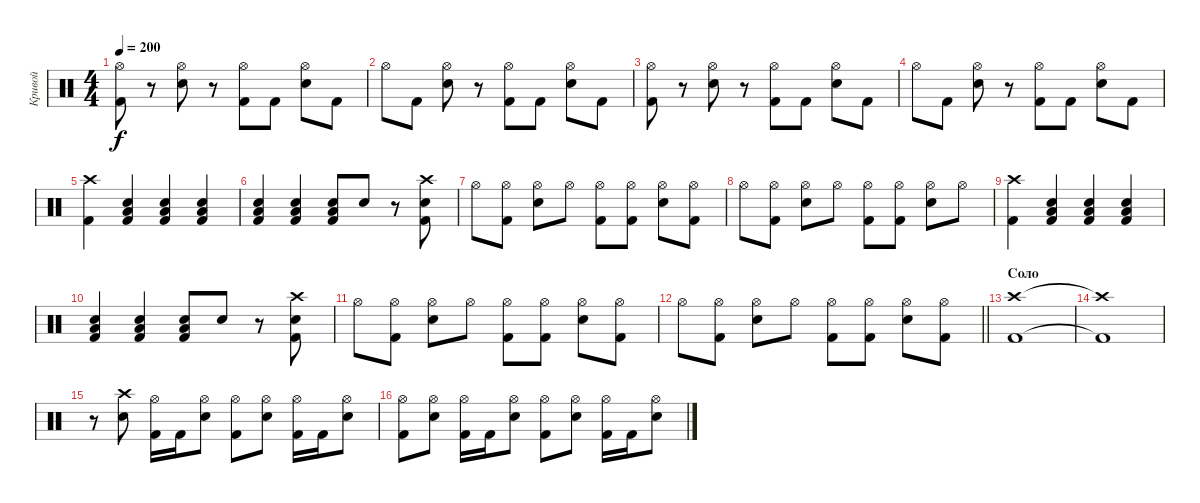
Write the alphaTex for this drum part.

\track ("Кривой" "Кривой") {instrument percussion}
\staff {score}
\articulation defaults
\ts (4 4)
\tempo 200
\clef neutral
\ks c
("Kick (hit) 2" "Hi-Hat (open)").8{dy f} r.8 ("Electric Snare (hit)" "Hi-Hat (open)").8 r.8 ("Kick (hit) 2" "Hi-Hat (open)").8 "Kick (hit) 2".8 ("Electric Snare (hit)" "Hi-Hat (open)").8 "Kick (hit) 2".8 |
"Hi-Hat (open)".8 "Kick (hit) 2".8 ("Electric Snare (hit)" "Hi-Hat (open)").8 r.8 ("Kick (hit) 2" "Hi-Hat (open)").8 "Kick (hit) 2".8 ("Electric Snare (hit)" "Hi-Hat (open)").8 "Kick (hit) 2".8 |
("Kick (hit) 2" "Hi-Hat (open)").8 r.8 ("Electric Snare (hit)" "Hi-Hat (open)").8 r.8 ("Kick (hit) 2" "Hi-Hat (open)").8 "Kick (hit) 2".8 ("Electric Snare (hit)" "Hi-Hat (open)").8 "Kick (hit) 2".8 |
"Hi-Hat (open)".8 "Kick (hit) 2".8 ("Electric Snare (hit)" "Hi-Hat (open)").8 r.8 ("Kick (hit) 2" "Hi-Hat (open)").8 "Kick (hit) 2".8 ("Electric Snare (hit)" "Hi-Hat (open)").8 "Kick (hit) 2".8 |
("Kick (hit) 2" "Crash high (hit)").4 ("Kick (hit) 2" "Electric Snare (hit)" "Low Tom (hit)").4 ("Kick (hit) 2" "Electric Snare (hit)" "Low Tom (hit)").4 ("Kick (hit) 2" "Electric Snare (hit)" "Low Tom (hit)").4 |
("Kick (hit) 2" "Electric Snare (hit)" "Low Tom (hit)").4 ("Kick (hit) 2" "Electric Snare (hit)" "Low Tom (hit)").4 ("Kick (hit) 2" "Electric Snare (hit)" "Low Tom (hit)").8 "Electric Snare (hit)".8 r.8 ("Kick (hit) 2" "Electric Snare (hit)" "Crash high (hit)").8 |
"Hi-Hat (open)".8 ("Kick (hit) 2" "Hi-Hat (open)").8 ("Electric Snare (hit)" "Hi-Hat (open)").8 "Hi-Hat (open)".8 ("Kick (hit) 2" "Hi-Hat (open)").8 ("Kick (hit) 2" "Hi-Hat (open)").8 ("Electric Snare (hit)" "Hi-Hat (open)").8 ("Kick (hit) 2" "Hi-Hat (open)").8 |
"Hi-Hat (open)".8 ("Kick (hit) 2" "Hi-Hat (open)").8 ("Electric Snare (hit)" "Hi-Hat (open)").8 "Hi-Hat (open)".8 ("Kick (hit) 2" "Hi-Hat (open)").8 ("Kick (hit) 2" "Hi-Hat (open)").8 ("Electric Snare (hit)" "Hi-Hat (open)").8 "Hi-Hat (open)".8 |
("Kick (hit) 2" "Crash high (hit)").4 ("Kick (hit) 2" "Electric Snare (hit)" "Low Tom (hit)").4 ("Kick (hit) 2" "Electric Snare (hit)" "Low Tom (hit)").4 ("Kick (hit) 2" "Electric Snare (hit)" "Low Tom (hit)").4 |
("Kick (hit) 2" "Electric Snare (hit)" "Low Tom (hit)").4 ("Kick (hit) 2" "Electric Snare (hit)" "Low Tom (hit)").4 ("Kick (hit) 2" "Electric Snare (hit)" "Low Tom (hit)").8 "Electric Snare (hit)".8 r.8 ("Kick (hit) 2" "Electric Snare (hit)" "Crash high (hit)").8 |
"Hi-Hat (open)".8 ("Kick (hit) 2" "Hi-Hat (open)").8 ("Electric Snare (hit)" "Hi-Hat (open)").8 "Hi-Hat (open)".8 ("Kick (hit) 2" "Hi-Hat (open)").8 ("Kick (hit) 2" "Hi-Hat (open)").8 ("Electric Snare (hit)" "Hi-Hat (open)").8 ("Kick (hit) 2" "Hi-Hat (open)").8 |
\barLineRight lightlight "Hi-Hat (open)".8
("Kick (hit) 2" "Hi-Hat (open)").8 ("Electric Snare (hit)" "Hi-Hat (open)").8 "Hi-Hat (open)".8 ("Kick (hit) 2" "Hi-Hat (open)").8 ("Kick (hit) 2" "Hi-Hat (open)").8 ("Electric Snare (hit)" "Hi-Hat (open)").8 ("Kick (hit) 2" "Hi-Hat (open)").8 |
\section ("" "Соло")
("Kick (hit) 2" "Crash high (hit)").1 |
("Kick (hit) 2"{t} "Crash high (hit)"{t}).1 |
r.8 ("Electric Snare (hit)" "Crash high (hit)").8 ("Kick (hit) 2" "Hi-Hat (open)").16 "Kick (hit) 2".16 ("Electric Snare (hit)" "Hi-Hat (open)").8 ("Kick (hit) 2" "Hi-Hat (open)").8 ("Electric Snare (hit)" "Hi-Hat (open)").8 ("Kick (hit) 2" "Hi-Hat (open)").16 "Kick (hit) 2".16 ("Electric Snare (hit)" "Hi-Hat (open)").8 |
("Kick (hit) 2" "Hi-Hat (open)").8 ("Electric Snare (hit)" "Hi-Hat (open)").8 ("Kick (hit) 2" "Hi-Hat (open)").16 "Kick (hit) 2".16 ("Electric Snare (hit)" "Hi-Hat (open)").8 ("Kick (hit) 2" "Hi-Hat (open)").8 ("Electric Snare (hit)" "Hi-Hat (open)").8 ("Kick (hit) 2" "Hi-Hat (open)").16 "Kick (hit) 2".16 ("Electric Snare (hit)" "Hi-Hat (open)").8
